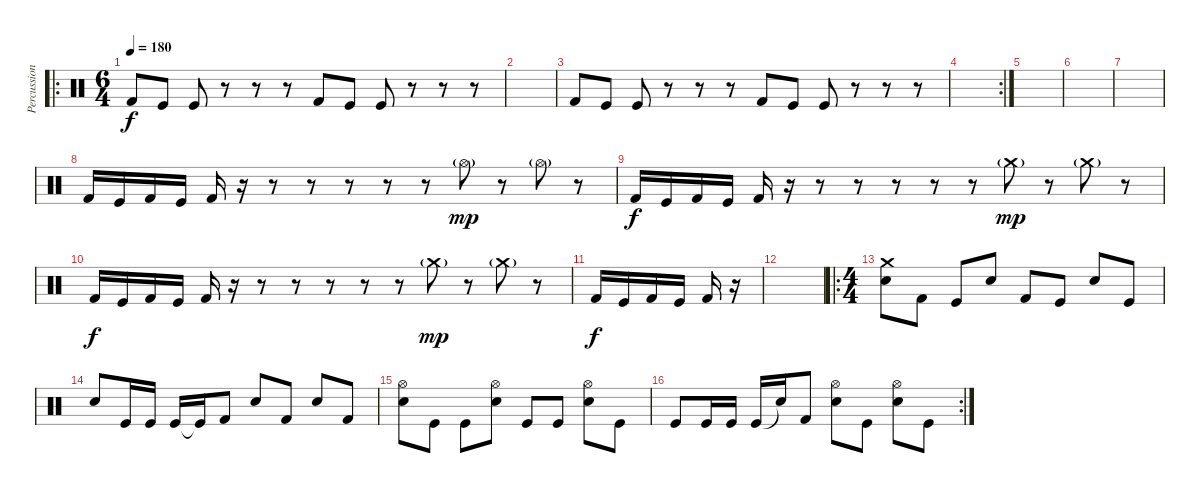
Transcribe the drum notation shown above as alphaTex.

\track ("Percussion" "Percussion") {instrument percussion}
\staff {score}
\articulation defaults
\ro
\ts (6 4)
\tempo 180
\clef neutral
\ks c "Kick (hit) 2".8{dy f} "Kick (hit)".8 "Kick (hit)".8
r.8 r.8 r.8 "Kick (hit) 2".8 "Kick (hit)".8 "Kick (hit)".8 r.8 r.8 r.8 |
|
"Kick (hit) 2".8 "Kick (hit)".8 "Kick (hit)".8 r.8 r.8 r.8 "Kick (hit) 2".8 "Kick (hit)".8 "Kick (hit)".8 r.8 r.8 r.8 |
\rc 2
|
|
|
|
"Kick (hit) 2".16 "Kick (hit)".16 "Kick (hit) 2".16 "Kick (hit)".16 "Kick (hit) 2".16 r.16 r.8 r.8 r.8 r.8 r.8 "Hi-Hat (open)"{g}.8{dy mp} r.8 "Hi-Hat (open)"{g}.8 r.8 |
"Kick (hit) 2".16{dy f} "Kick (hit)".16 "Kick (hit) 2".16 "Kick (hit)".16 "Kick (hit) 2".16 r.16 r.8 r.8 r.8 r.8 r.8 "Crash medium (hit)"{g}.8{dy mp} r.8 "Crash medium (hit)"{g}.8 r.8 |
"Kick (hit) 2".16{dy f} "Kick (hit)".16 "Kick (hit) 2".16 "Kick (hit)".16 "Kick (hit) 2".16 r.16 r.8 r.8 r.8 r.8 r.8 "Crash medium (hit)"{g}.8{dy mp} r.8 "Crash medium (hit)"{g}.8 r.8 |
"Kick (hit) 2".16{dy f} "Kick (hit)".16 "Kick (hit) 2".16 "Kick (hit)".16 "Kick (hit) 2".16 r.16 |
|
\ro
\ts (4 4)
("Crash medium (hit)" "Snare (hit) 2").8 "Kick (hit) 2".8 "Kick (hit)".8 "Snare (hit) 2".8 "Kick (hit) 2".8 "Kick (hit)".8 "Snare (hit) 2".8 "Kick (hit)".8 |
"Snare (hit) 2".8 "Kick (hit)".16 "Kick (hit)".16 "Kick (hit)".16 "Kick (hit)"{t}.16 "Kick (hit) 2".8 "Snare (hit) 2".8 "Kick (hit) 2".8 "Snare (hit) 2".8 "Kick (hit) 2".8 |
("Hi-Hat (open)" "Snare (hit) 2").8 "Kick (hit)".8 "Kick (hit)".8 ("Hi-Hat (open)" "Snare (hit) 2").8 "Kick (hit)".8 "Kick (hit)".8 ("Hi-Hat (open)" "Snare (hit) 2").8 "Kick (hit)".8 |
\rc 2 "Kick (hit)".8 "Kick (hit)".16 "Kick (hit)".16 "Kick (hit)".16 "Snare (hit)"{t}.16 "Kick (hit) 2".8
("Hi-Hat (open)" "Snare (hit) 2").8 "Kick (hit)".8 ("Hi-Hat (open)" "Snare (hit) 2").8 "Kick (hit)".8
